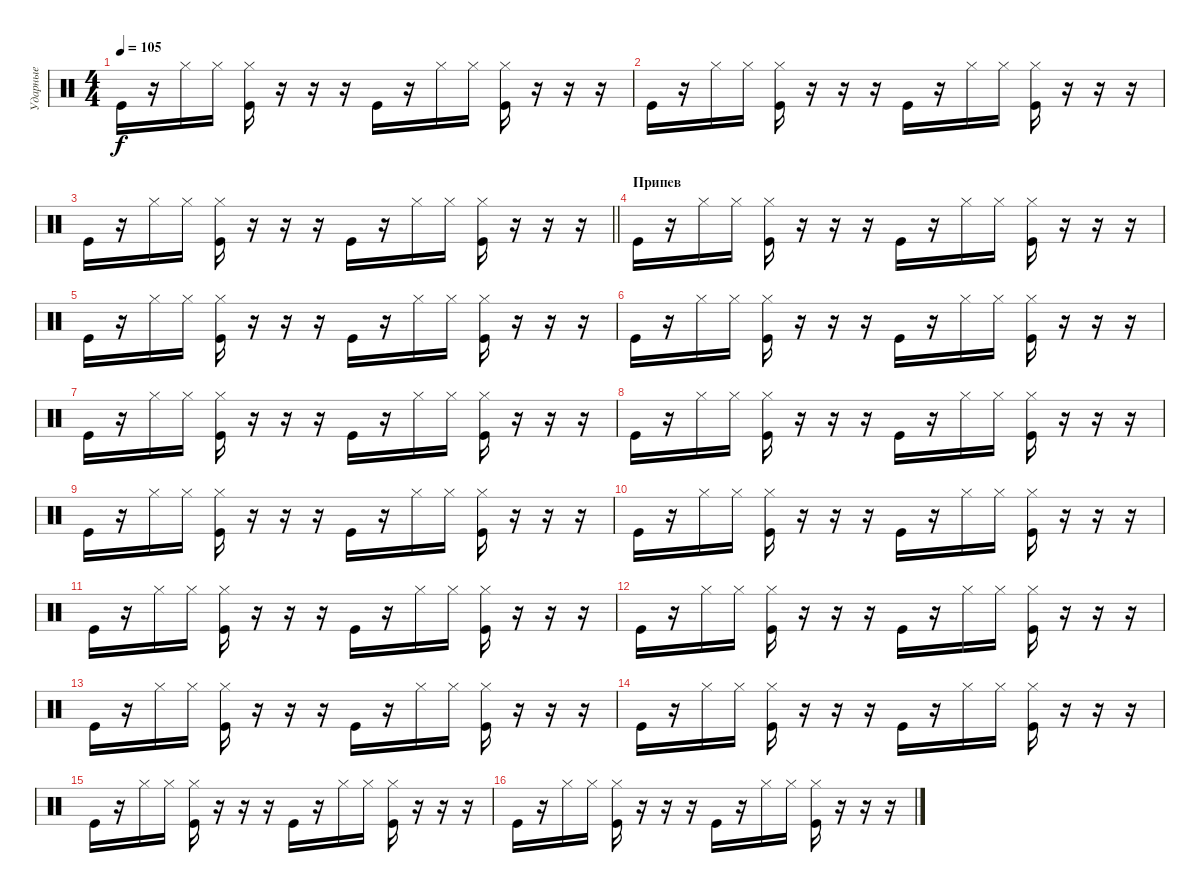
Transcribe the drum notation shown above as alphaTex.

\track ("Ударные" "Ударные") {instrument percussion}
\staff {score}
\articulation defaults
\ts (4 4)
\tempo 105
\clef neutral
\ks c "Kick (hit)".16{dy f}
r.16 "Hi-Hat (closed)".16 "Hi-Hat (closed)".16 ("Hi-Hat (closed)" "Kick (hit)").16 r.16 r.16 r.16 "Kick (hit)".16 r.16 "Hi-Hat (closed)".16 "Hi-Hat (closed)".16 ("Hi-Hat (closed)" "Kick (hit)").16 r.16 r.16 r.16 |
"Kick (hit)".16 r.16 "Hi-Hat (closed)".16 "Hi-Hat (closed)".16 ("Hi-Hat (closed)" "Kick (hit)").16 r.16 r.16 r.16 "Kick (hit)".16 r.16 "Hi-Hat (closed)".16 "Hi-Hat (closed)".16 ("Hi-Hat (closed)" "Kick (hit)").16 r.16 r.16 r.16 |
\barLineRight lightlight "Kick (hit)".16
r.16 "Hi-Hat (closed)".16 "Hi-Hat (closed)".16 ("Hi-Hat (closed)" "Kick (hit)").16 r.16 r.16 r.16 "Kick (hit)".16 r.16 "Hi-Hat (closed)".16 "Hi-Hat (closed)".16 ("Hi-Hat (closed)" "Kick (hit)").16 r.16 r.16 r.16 |
\section ("" "Припев")
"Kick (hit)".16 r.16 "Hi-Hat (closed)".16 "Hi-Hat (closed)".16 ("Hi-Hat (closed)" "Kick (hit)").16 r.16 r.16 r.16 "Kick (hit)".16 r.16 "Hi-Hat (closed)".16 "Hi-Hat (closed)".16 ("Hi-Hat (closed)" "Kick (hit)").16 r.16 r.16 r.16 |
"Kick (hit)".16 r.16 "Hi-Hat (closed)".16 "Hi-Hat (closed)".16 ("Hi-Hat (closed)" "Kick (hit)").16 r.16 r.16 r.16 "Kick (hit)".16 r.16 "Hi-Hat (closed)".16 "Hi-Hat (closed)".16 ("Hi-Hat (closed)" "Kick (hit)").16 r.16 r.16 r.16 |
"Kick (hit)".16 r.16 "Hi-Hat (closed)".16 "Hi-Hat (closed)".16 ("Hi-Hat (closed)" "Kick (hit)").16 r.16 r.16 r.16 "Kick (hit)".16 r.16 "Hi-Hat (closed)".16 "Hi-Hat (closed)".16 ("Hi-Hat (closed)" "Kick (hit)").16 r.16 r.16 r.16 |
"Kick (hit)".16 r.16 "Hi-Hat (closed)".16 "Hi-Hat (closed)".16 ("Hi-Hat (closed)" "Kick (hit)").16 r.16 r.16 r.16 "Kick (hit)".16 r.16 "Hi-Hat (closed)".16 "Hi-Hat (closed)".16 ("Hi-Hat (closed)" "Kick (hit)").16 r.16 r.16 r.16 |
"Kick (hit)".16 r.16 "Hi-Hat (closed)".16 "Hi-Hat (closed)".16 ("Hi-Hat (closed)" "Kick (hit)").16 r.16 r.16 r.16 "Kick (hit)".16 r.16 "Hi-Hat (closed)".16 "Hi-Hat (closed)".16 ("Hi-Hat (closed)" "Kick (hit)").16 r.16 r.16 r.16 |
"Kick (hit)".16 r.16 "Hi-Hat (closed)".16 "Hi-Hat (closed)".16 ("Hi-Hat (closed)" "Kick (hit)").16 r.16 r.16 r.16 "Kick (hit)".16 r.16 "Hi-Hat (closed)".16 "Hi-Hat (closed)".16 ("Hi-Hat (closed)" "Kick (hit)").16 r.16 r.16 r.16 |
"Kick (hit)".16 r.16 "Hi-Hat (closed)".16 "Hi-Hat (closed)".16 ("Hi-Hat (closed)" "Kick (hit)").16 r.16 r.16 r.16 "Kick (hit)".16 r.16 "Hi-Hat (closed)".16 "Hi-Hat (closed)".16 ("Hi-Hat (closed)" "Kick (hit)").16 r.16 r.16 r.16 |
"Kick (hit)".16 r.16 "Hi-Hat (closed)".16 "Hi-Hat (closed)".16 ("Hi-Hat (closed)" "Kick (hit)").16 r.16 r.16 r.16 "Kick (hit)".16 r.16 "Hi-Hat (closed)".16 "Hi-Hat (closed)".16 ("Hi-Hat (closed)" "Kick (hit)").16 r.16 r.16 r.16 |
"Kick (hit)".16 r.16 "Hi-Hat (closed)".16 "Hi-Hat (closed)".16 ("Hi-Hat (closed)" "Kick (hit)").16 r.16 r.16 r.16 "Kick (hit)".16 r.16 "Hi-Hat (closed)".16 "Hi-Hat (closed)".16 ("Hi-Hat (closed)" "Kick (hit)").16 r.16 r.16 r.16 |
"Kick (hit)".16 r.16 "Hi-Hat (closed)".16 "Hi-Hat (closed)".16 ("Hi-Hat (closed)" "Kick (hit)").16 r.16 r.16 r.16 "Kick (hit)".16 r.16 "Hi-Hat (closed)".16 "Hi-Hat (closed)".16 ("Hi-Hat (closed)" "Kick (hit)").16 r.16 r.16 r.16 |
"Kick (hit)".16 r.16 "Hi-Hat (closed)".16 "Hi-Hat (closed)".16 ("Hi-Hat (closed)" "Kick (hit)").16 r.16 r.16 r.16 "Kick (hit)".16 r.16 "Hi-Hat (closed)".16 "Hi-Hat (closed)".16 ("Hi-Hat (closed)" "Kick (hit)").16 r.16 r.16 r.16 |
"Kick (hit)".16 r.16 "Hi-Hat (closed)".16 "Hi-Hat (closed)".16 ("Hi-Hat (closed)" "Kick (hit)").16 r.16 r.16 r.16 "Kick (hit)".16 r.16 "Hi-Hat (closed)".16 "Hi-Hat (closed)".16 ("Hi-Hat (closed)" "Kick (hit)").16 r.16 r.16 r.16 |
"Kick (hit)".16 r.16 "Hi-Hat (closed)".16 "Hi-Hat (closed)".16 ("Hi-Hat (closed)" "Kick (hit)").16 r.16 r.16 r.16 "Kick (hit)".16 r.16 "Hi-Hat (closed)".16 "Hi-Hat (closed)".16 ("Hi-Hat (closed)" "Kick (hit)").16 r.16 r.16 r.16
